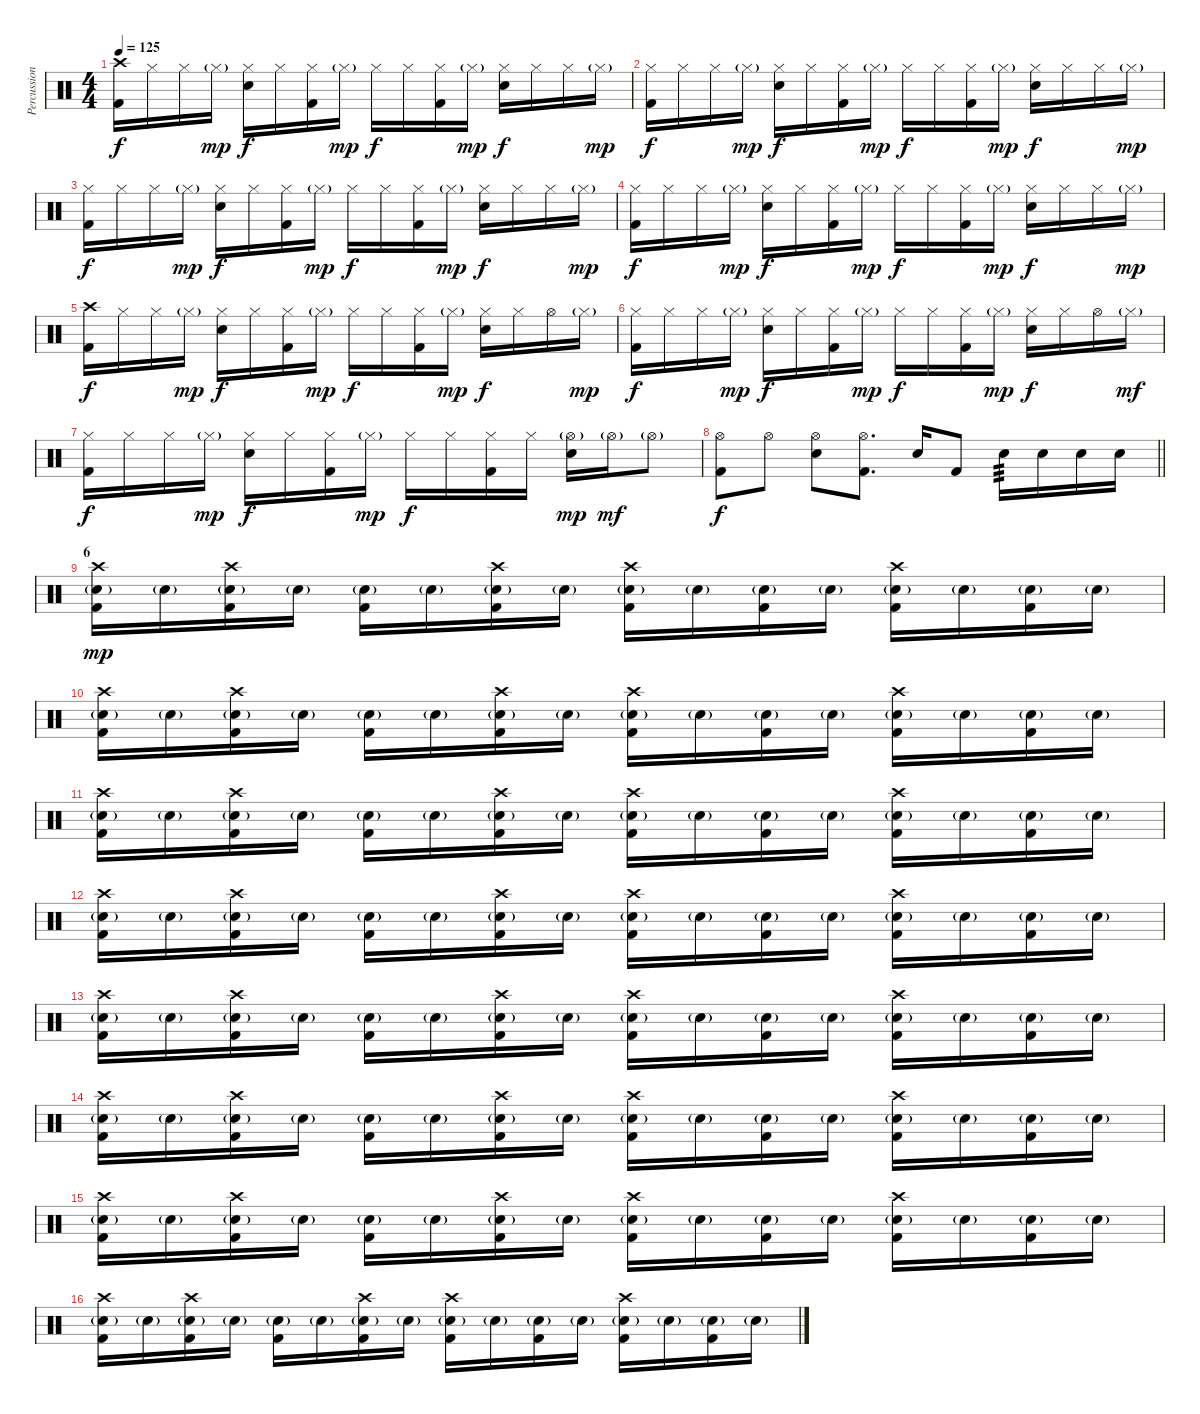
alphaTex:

\track ("Percussion" "Percussion") {instrument percussion}
\staff {score}
\articulation defaults
\ts (4 4)
\tempo 125
\clef neutral
\ks c
("Crash high (hit)" "Kick (hit) 2").16{dy f} "Hi-Hat (closed)".16 "Hi-Hat (closed)".16 "Hi-Hat (closed)"{g}.16{dy mp} ("Hi-Hat (closed)" "Snare (hit) 2").16{dy f} "Hi-Hat (closed)".16 ("Hi-Hat (closed)" "Kick (hit) 2").16 "Hi-Hat (closed)"{g}.16{dy mp} "Hi-Hat (closed)".16{dy f} "Hi-Hat (closed)".16 ("Hi-Hat (closed)" "Kick (hit) 2").16 "Hi-Hat (closed)"{g}.16{dy mp} ("Hi-Hat (closed)" "Snare (hit) 2").16{dy f} "Hi-Hat (closed)".16 "Hi-Hat (closed)".16 "Hi-Hat (closed)"{g}.16{dy mp} |
("Hi-Hat (closed)" "Kick (hit) 2").16{dy f} "Hi-Hat (closed)".16 "Hi-Hat (closed)".16 "Hi-Hat (closed)"{g}.16{dy mp} ("Hi-Hat (closed)" "Snare (hit) 2").16{dy f} "Hi-Hat (closed)".16 ("Hi-Hat (closed)" "Kick (hit) 2").16 "Hi-Hat (closed)"{g}.16{dy mp} "Hi-Hat (closed)".16{dy f} "Hi-Hat (closed)".16 ("Hi-Hat (closed)" "Kick (hit) 2").16 "Hi-Hat (closed)"{g}.16{dy mp} ("Hi-Hat (closed)" "Snare (hit) 2").16{dy f} "Hi-Hat (closed)".16 "Hi-Hat (closed)".16 "Hi-Hat (closed)"{g}.16{dy mp} |
("Hi-Hat (closed)" "Kick (hit) 2").16{dy f} "Hi-Hat (closed)".16 "Hi-Hat (closed)".16 "Hi-Hat (closed)"{g}.16{dy mp} ("Hi-Hat (closed)" "Snare (hit) 2").16{dy f} "Hi-Hat (closed)".16 ("Hi-Hat (closed)" "Kick (hit) 2").16 "Hi-Hat (closed)"{g}.16{dy mp} "Hi-Hat (closed)".16{dy f} "Hi-Hat (closed)".16 ("Hi-Hat (closed)" "Kick (hit) 2").16 "Hi-Hat (closed)"{g}.16{dy mp} ("Hi-Hat (closed)" "Snare (hit) 2").16{dy f} "Hi-Hat (closed)".16 "Hi-Hat (closed)".16 "Hi-Hat (closed)"{g}.16{dy mp} |
("Hi-Hat (closed)" "Kick (hit) 2").16{dy f} "Hi-Hat (closed)".16 "Hi-Hat (closed)".16 "Hi-Hat (closed)"{g}.16{dy mp} ("Hi-Hat (closed)" "Snare (hit) 2").16{dy f} "Hi-Hat (closed)".16 ("Hi-Hat (closed)" "Kick (hit) 2").16 "Hi-Hat (closed)"{g}.16{dy mp} "Hi-Hat (closed)".16{dy f} "Hi-Hat (closed)".16 ("Hi-Hat (closed)" "Kick (hit) 2").16 "Hi-Hat (closed)"{g}.16{dy mp} ("Hi-Hat (closed)" "Snare (hit) 2").16{dy f} "Hi-Hat (closed)".16 "Hi-Hat (closed)".16 "Hi-Hat (closed)"{g}.16{dy mp} |
("Crash high (hit)" "Kick (hit) 2").16{dy f} "Hi-Hat (closed)".16 "Hi-Hat (closed)".16 "Hi-Hat (closed)"{g}.16{dy mp} ("Hi-Hat (closed)" "Snare (hit) 2").16{dy f} "Hi-Hat (closed)".16 ("Hi-Hat (closed)" "Kick (hit) 2").16 "Hi-Hat (closed)"{g}.16{dy mp} "Hi-Hat (closed)".16{dy f} "Hi-Hat (closed)".16 ("Hi-Hat (closed)" "Kick (hit) 2").16 "Hi-Hat (closed)"{g}.16{dy mp} ("Hi-Hat (closed)" "Snare (hit) 2").16{dy f} "Hi-Hat (closed)".16 "Hi-Hat (open)".16 "Hi-Hat (closed)"{g}.16{dy mp} |
("Hi-Hat (closed)" "Kick (hit) 2").16{dy f} "Hi-Hat (closed)".16 "Hi-Hat (closed)".16 "Hi-Hat (closed)"{g}.16{dy mp} ("Hi-Hat (closed)" "Snare (hit) 2").16{dy f} "Hi-Hat (closed)".16 ("Hi-Hat (closed)" "Kick (hit) 2").16 "Hi-Hat (closed)"{g}.16{dy mp} "Hi-Hat (closed)".16{dy f} "Hi-Hat (closed)".16 ("Hi-Hat (closed)" "Kick (hit) 2").16 "Hi-Hat (closed)"{g}.16{dy mp} ("Hi-Hat (closed)" "Snare (hit) 2").16{dy f} "Hi-Hat (closed)".16 "Hi-Hat (open)".16 "Hi-Hat (closed)"{g}.16{dy mf} |
("Hi-Hat (closed)" "Kick (hit) 2").16{dy f} "Hi-Hat (closed)".16 "Hi-Hat (closed)".16 "Hi-Hat (closed)"{g}.16{dy mp} ("Hi-Hat (closed)" "Snare (hit) 2").16{dy f} "Hi-Hat (closed)".16 ("Hi-Hat (closed)" "Kick (hit) 2").16 "Hi-Hat (closed)"{g}.16{dy mp} "Hi-Hat (closed)".16{dy f} "Hi-Hat (closed)".16 ("Hi-Hat (closed)" "Kick (hit) 2").16 "Hi-Hat (closed)".16 ("Hi-Hat (open)"{g} "Snare (hit) 2").16{dy mp} "Hi-Hat (open)"{g}.16{dy mf} "Hi-Hat (open)"{g}.8 |
\barLineRight lightlight
("Hi-Hat (open)" "Kick (hit) 2").8{dy f} "Hi-Hat (open)".8 ("Hi-Hat (open)" "Snare (hit) 2").8 ("Hi-Hat (open)" "Kick (hit) 2").8{d} "Snare (hit) 2".16 "Kick (hit) 2".8 "Snare (hit) 2".16{tp 3} "Snare (hit) 2".16 "Snare (hit) 2".16 "Snare (hit) 2".16 |
\section ("" "6")
("Crash high (hit)" "Snare (hit) 2"{g} "Kick (hit) 2").16{dy mp} "Snare (hit) 2"{g}.16 ("Crash high (hit)" "Snare (hit) 2"{g} "Kick (hit) 2").16 "Snare (hit) 2"{g}.16 ("Snare (hit) 2"{g} "Kick (hit) 2").16 "Snare (hit) 2"{g}.16 ("Crash high (hit)" "Snare (hit) 2"{g} "Kick (hit) 2").16 "Snare (hit) 2"{g}.16 ("Crash high (hit)" "Snare (hit) 2"{g} "Kick (hit) 2").16 "Snare (hit) 2"{g}.16 ("Snare (hit) 2"{g} "Kick (hit) 2").16 "Snare (hit) 2"{g}.16 ("Crash high (hit)" "Snare (hit) 2"{g} "Kick (hit) 2").16 "Snare (hit) 2"{g}.16 ("Snare (hit) 2"{g} "Kick (hit) 2").16 "Snare (hit) 2"{g}.16 |
("Crash high (hit)" "Snare (hit) 2"{g} "Kick (hit) 2").16 "Snare (hit) 2"{g}.16 ("Crash high (hit)" "Snare (hit) 2"{g} "Kick (hit) 2").16 "Snare (hit) 2"{g}.16 ("Snare (hit) 2"{g} "Kick (hit) 2").16 "Snare (hit) 2"{g}.16 ("Crash high (hit)" "Snare (hit) 2"{g} "Kick (hit) 2").16 "Snare (hit) 2"{g}.16 ("Crash high (hit)" "Snare (hit) 2"{g} "Kick (hit) 2").16 "Snare (hit) 2"{g}.16 ("Snare (hit) 2"{g} "Kick (hit) 2").16 "Snare (hit) 2"{g}.16 ("Crash high (hit)" "Snare (hit) 2"{g} "Kick (hit) 2").16 "Snare (hit) 2"{g}.16 ("Snare (hit) 2"{g} "Kick (hit) 2").16 "Snare (hit) 2"{g}.16 |
("Crash high (hit)" "Snare (hit) 2"{g} "Kick (hit) 2").16 "Snare (hit) 2"{g}.16 ("Crash high (hit)" "Snare (hit) 2"{g} "Kick (hit) 2").16 "Snare (hit) 2"{g}.16 ("Snare (hit) 2"{g} "Kick (hit) 2").16 "Snare (hit) 2"{g}.16 ("Crash high (hit)" "Snare (hit) 2"{g} "Kick (hit) 2").16 "Snare (hit) 2"{g}.16 ("Crash high (hit)" "Snare (hit) 2"{g} "Kick (hit) 2").16 "Snare (hit) 2"{g}.16 ("Snare (hit) 2"{g} "Kick (hit) 2").16 "Snare (hit) 2"{g}.16 ("Crash high (hit)" "Snare (hit) 2"{g} "Kick (hit) 2").16 "Snare (hit) 2"{g}.16 ("Snare (hit) 2"{g} "Kick (hit) 2").16 "Snare (hit) 2"{g}.16 |
("Crash high (hit)" "Snare (hit) 2"{g} "Kick (hit) 2").16 "Snare (hit) 2"{g}.16 ("Crash high (hit)" "Snare (hit) 2"{g} "Kick (hit) 2").16 "Snare (hit) 2"{g}.16 ("Snare (hit) 2"{g} "Kick (hit) 2").16 "Snare (hit) 2"{g}.16 ("Crash high (hit)" "Snare (hit) 2"{g} "Kick (hit) 2").16 "Snare (hit) 2"{g}.16 ("Crash high (hit)" "Snare (hit) 2"{g} "Kick (hit) 2").16 "Snare (hit) 2"{g}.16 ("Snare (hit) 2"{g} "Kick (hit) 2").16 "Snare (hit) 2"{g}.16 ("Crash high (hit)" "Snare (hit) 2"{g} "Kick (hit) 2").16 "Snare (hit) 2"{g}.16 ("Snare (hit) 2"{g} "Kick (hit) 2").16 "Snare (hit) 2"{g}.16 |
("Crash high (hit)" "Snare (hit) 2"{g} "Kick (hit) 2").16 "Snare (hit) 2"{g}.16 ("Crash high (hit)" "Snare (hit) 2"{g} "Kick (hit) 2").16 "Snare (hit) 2"{g}.16 ("Snare (hit) 2"{g} "Kick (hit) 2").16 "Snare (hit) 2"{g}.16 ("Crash high (hit)" "Snare (hit) 2"{g} "Kick (hit) 2").16 "Snare (hit) 2"{g}.16 ("Crash high (hit)" "Snare (hit) 2"{g} "Kick (hit) 2").16 "Snare (hit) 2"{g}.16 ("Snare (hit) 2"{g} "Kick (hit) 2").16 "Snare (hit) 2"{g}.16 ("Crash high (hit)" "Snare (hit) 2"{g} "Kick (hit) 2").16 "Snare (hit) 2"{g}.16 ("Snare (hit) 2"{g} "Kick (hit) 2").16 "Snare (hit) 2"{g}.16 |
("Crash high (hit)" "Snare (hit) 2"{g} "Kick (hit) 2").16 "Snare (hit) 2"{g}.16 ("Crash high (hit)" "Snare (hit) 2"{g} "Kick (hit) 2").16 "Snare (hit) 2"{g}.16 ("Snare (hit) 2"{g} "Kick (hit) 2").16 "Snare (hit) 2"{g}.16 ("Crash high (hit)" "Snare (hit) 2"{g} "Kick (hit) 2").16 "Snare (hit) 2"{g}.16 ("Crash high (hit)" "Snare (hit) 2"{g} "Kick (hit) 2").16 "Snare (hit) 2"{g}.16 ("Snare (hit) 2"{g} "Kick (hit) 2").16 "Snare (hit) 2"{g}.16 ("Crash high (hit)" "Snare (hit) 2"{g} "Kick (hit) 2").16 "Snare (hit) 2"{g}.16 ("Snare (hit) 2"{g} "Kick (hit) 2").16 "Snare (hit) 2"{g}.16 |
("Crash high (hit)" "Snare (hit) 2"{g} "Kick (hit) 2").16 "Snare (hit) 2"{g}.16 ("Crash high (hit)" "Snare (hit) 2"{g} "Kick (hit) 2").16 "Snare (hit) 2"{g}.16 ("Snare (hit) 2"{g} "Kick (hit) 2").16 "Snare (hit) 2"{g}.16 ("Crash high (hit)" "Snare (hit) 2"{g} "Kick (hit) 2").16 "Snare (hit) 2"{g}.16 ("Crash high (hit)" "Snare (hit) 2"{g} "Kick (hit) 2").16 "Snare (hit) 2"{g}.16 ("Snare (hit) 2"{g} "Kick (hit) 2").16 "Snare (hit) 2"{g}.16 ("Crash high (hit)" "Snare (hit) 2"{g} "Kick (hit) 2").16 "Snare (hit) 2"{g}.16 ("Snare (hit) 2"{g} "Kick (hit) 2").16 "Snare (hit) 2"{g}.16 |
("Crash high (hit)" "Snare (hit) 2"{g} "Kick (hit) 2").16 "Snare (hit) 2"{g}.16 ("Crash high (hit)" "Snare (hit) 2"{g} "Kick (hit) 2").16 "Snare (hit) 2"{g}.16 ("Snare (hit) 2"{g} "Kick (hit) 2").16 "Snare (hit) 2"{g}.16 ("Crash high (hit)" "Snare (hit) 2"{g} "Kick (hit) 2").16 "Snare (hit) 2"{g}.16 ("Crash high (hit)" "Snare (hit) 2"{g} "Kick (hit) 2").16 "Snare (hit) 2"{g}.16 ("Snare (hit) 2"{g} "Kick (hit) 2").16 "Snare (hit) 2"{g}.16 ("Crash high (hit)" "Snare (hit) 2"{g} "Kick (hit) 2").16 "Snare (hit) 2"{g}.16 ("Snare (hit) 2"{g} "Kick (hit) 2").16 "Snare (hit) 2"{g}.16
